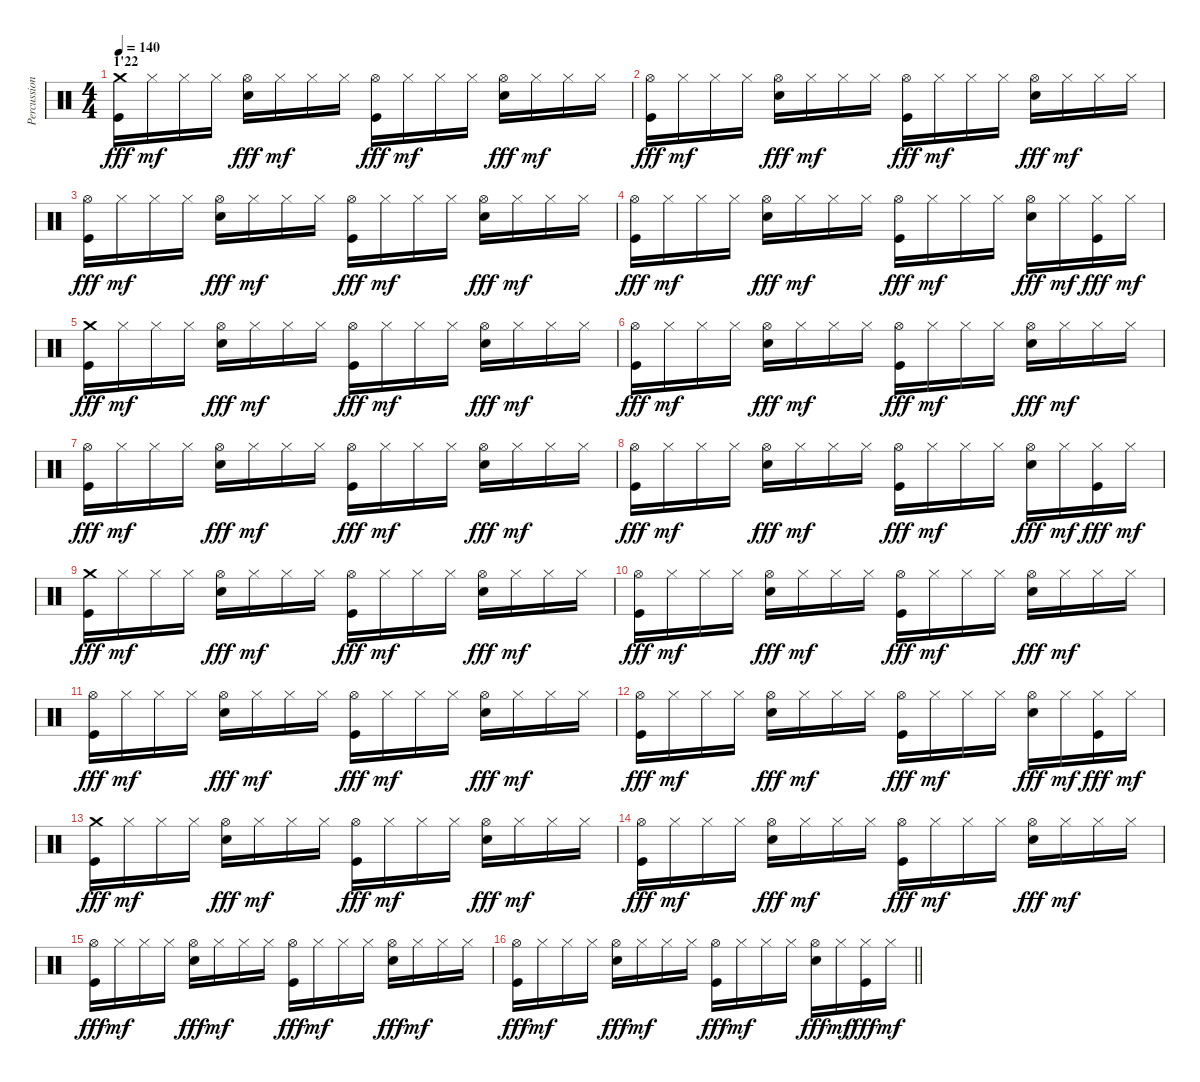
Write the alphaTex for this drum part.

\track ("Percussions" "Percussion") {instrument percussion}
\staff {score}
\articulation defaults
\ts (4 4)
\section ("" "1'22")
\tempo 140
\clef neutral
\ks c
("Crash medium (hit)" "Kick (hit)").16{dy fff} "Hi-Hat (closed)".16{dy mf} "Hi-Hat (closed)".16 "Hi-Hat (closed)".16 ("Hi-Hat (open)" "Electric Snare (hit)").16{dy fff} "Hi-Hat (closed)".16{dy mf} "Hi-Hat (closed)".16 "Hi-Hat (closed)".16 ("Hi-Hat (open)" "Kick (hit)").16{dy fff} "Hi-Hat (closed)".16{dy mf} "Hi-Hat (closed)".16 "Hi-Hat (closed)".16 ("Hi-Hat (open)" "Electric Snare (hit)").16{dy fff} "Hi-Hat (closed)".16{dy mf} "Hi-Hat (closed)".16 "Hi-Hat (closed)".16 |
("Hi-Hat (open)" "Kick (hit)").16{dy fff} "Hi-Hat (closed)".16{dy mf} "Hi-Hat (closed)".16 "Hi-Hat (closed)".16 ("Hi-Hat (open)" "Electric Snare (hit)").16{dy fff} "Hi-Hat (closed)".16{dy mf} "Hi-Hat (closed)".16 "Hi-Hat (closed)".16 ("Hi-Hat (open)" "Kick (hit)").16{dy fff} "Hi-Hat (closed)".16{dy mf} "Hi-Hat (closed)".16 "Hi-Hat (closed)".16 ("Hi-Hat (open)" "Electric Snare (hit)").16{dy fff} "Hi-Hat (closed)".16{dy mf} "Hi-Hat (closed)".16 "Hi-Hat (closed)".16 |
("Hi-Hat (open)" "Kick (hit)").16{dy fff} "Hi-Hat (closed)".16{dy mf} "Hi-Hat (closed)".16 "Hi-Hat (closed)".16 ("Hi-Hat (open)" "Electric Snare (hit)").16{dy fff} "Hi-Hat (closed)".16{dy mf} "Hi-Hat (closed)".16 "Hi-Hat (closed)".16 ("Hi-Hat (open)" "Kick (hit)").16{dy fff} "Hi-Hat (closed)".16{dy mf} "Hi-Hat (closed)".16 "Hi-Hat (closed)".16 ("Hi-Hat (open)" "Electric Snare (hit)").16{dy fff} "Hi-Hat (closed)".16{dy mf} "Hi-Hat (closed)".16 "Hi-Hat (closed)".16 |
("Hi-Hat (open)" "Kick (hit)").16{dy fff} "Hi-Hat (closed)".16{dy mf} "Hi-Hat (closed)".16 "Hi-Hat (closed)".16 ("Hi-Hat (open)" "Electric Snare (hit)").16{dy fff} "Hi-Hat (closed)".16{dy mf} "Hi-Hat (closed)".16 "Hi-Hat (closed)".16 ("Hi-Hat (open)" "Kick (hit)").16{dy fff} "Hi-Hat (closed)".16{dy mf} "Hi-Hat (closed)".16 "Hi-Hat (closed)".16 ("Hi-Hat (open)" "Electric Snare (hit)").16{dy fff} "Hi-Hat (closed)".16{dy mf} ("Hi-Hat (closed)" "Kick (hit)").16{dy fff} "Hi-Hat (closed)".16{dy mf} |
("Crash medium (hit)" "Kick (hit)").16{dy fff} "Hi-Hat (closed)".16{dy mf} "Hi-Hat (closed)".16 "Hi-Hat (closed)".16 ("Hi-Hat (open)" "Electric Snare (hit)").16{dy fff} "Hi-Hat (closed)".16{dy mf} "Hi-Hat (closed)".16 "Hi-Hat (closed)".16 ("Hi-Hat (open)" "Kick (hit)").16{dy fff} "Hi-Hat (closed)".16{dy mf} "Hi-Hat (closed)".16 "Hi-Hat (closed)".16 ("Hi-Hat (open)" "Electric Snare (hit)").16{dy fff} "Hi-Hat (closed)".16{dy mf} "Hi-Hat (closed)".16 "Hi-Hat (closed)".16 |
("Hi-Hat (open)" "Kick (hit)").16{dy fff} "Hi-Hat (closed)".16{dy mf} "Hi-Hat (closed)".16 "Hi-Hat (closed)".16 ("Hi-Hat (open)" "Electric Snare (hit)").16{dy fff} "Hi-Hat (closed)".16{dy mf} "Hi-Hat (closed)".16 "Hi-Hat (closed)".16 ("Hi-Hat (open)" "Kick (hit)").16{dy fff} "Hi-Hat (closed)".16{dy mf} "Hi-Hat (closed)".16 "Hi-Hat (closed)".16 ("Hi-Hat (open)" "Electric Snare (hit)").16{dy fff} "Hi-Hat (closed)".16{dy mf} "Hi-Hat (closed)".16 "Hi-Hat (closed)".16 |
("Hi-Hat (open)" "Kick (hit)").16{dy fff} "Hi-Hat (closed)".16{dy mf} "Hi-Hat (closed)".16 "Hi-Hat (closed)".16 ("Hi-Hat (open)" "Electric Snare (hit)").16{dy fff} "Hi-Hat (closed)".16{dy mf} "Hi-Hat (closed)".16 "Hi-Hat (closed)".16 ("Hi-Hat (open)" "Kick (hit)").16{dy fff} "Hi-Hat (closed)".16{dy mf} "Hi-Hat (closed)".16 "Hi-Hat (closed)".16 ("Hi-Hat (open)" "Electric Snare (hit)").16{dy fff} "Hi-Hat (closed)".16{dy mf} "Hi-Hat (closed)".16 "Hi-Hat (closed)".16 |
("Hi-Hat (open)" "Kick (hit)").16{dy fff} "Hi-Hat (closed)".16{dy mf} "Hi-Hat (closed)".16 "Hi-Hat (closed)".16 ("Hi-Hat (open)" "Electric Snare (hit)").16{dy fff} "Hi-Hat (closed)".16{dy mf} "Hi-Hat (closed)".16 "Hi-Hat (closed)".16 ("Hi-Hat (open)" "Kick (hit)").16{dy fff} "Hi-Hat (closed)".16{dy mf} "Hi-Hat (closed)".16 "Hi-Hat (closed)".16 ("Hi-Hat (open)" "Electric Snare (hit)").16{dy fff} "Hi-Hat (closed)".16{dy mf} ("Hi-Hat (closed)" "Kick (hit)").16{dy fff} "Hi-Hat (closed)".16{dy mf} |
("Crash medium (hit)" "Kick (hit)").16{dy fff} "Hi-Hat (closed)".16{dy mf} "Hi-Hat (closed)".16 "Hi-Hat (closed)".16 ("Hi-Hat (open)" "Electric Snare (hit)").16{dy fff} "Hi-Hat (closed)".16{dy mf} "Hi-Hat (closed)".16 "Hi-Hat (closed)".16 ("Hi-Hat (open)" "Kick (hit)").16{dy fff} "Hi-Hat (closed)".16{dy mf} "Hi-Hat (closed)".16 "Hi-Hat (closed)".16 ("Hi-Hat (open)" "Electric Snare (hit)").16{dy fff} "Hi-Hat (closed)".16{dy mf} "Hi-Hat (closed)".16 "Hi-Hat (closed)".16 |
("Hi-Hat (open)" "Kick (hit)").16{dy fff} "Hi-Hat (closed)".16{dy mf} "Hi-Hat (closed)".16 "Hi-Hat (closed)".16 ("Hi-Hat (open)" "Electric Snare (hit)").16{dy fff} "Hi-Hat (closed)".16{dy mf} "Hi-Hat (closed)".16 "Hi-Hat (closed)".16 ("Hi-Hat (open)" "Kick (hit)").16{dy fff} "Hi-Hat (closed)".16{dy mf} "Hi-Hat (closed)".16 "Hi-Hat (closed)".16 ("Hi-Hat (open)" "Electric Snare (hit)").16{dy fff} "Hi-Hat (closed)".16{dy mf} "Hi-Hat (closed)".16 "Hi-Hat (closed)".16 |
("Hi-Hat (open)" "Kick (hit)").16{dy fff} "Hi-Hat (closed)".16{dy mf} "Hi-Hat (closed)".16 "Hi-Hat (closed)".16 ("Hi-Hat (open)" "Electric Snare (hit)").16{dy fff} "Hi-Hat (closed)".16{dy mf} "Hi-Hat (closed)".16 "Hi-Hat (closed)".16 ("Hi-Hat (open)" "Kick (hit)").16{dy fff} "Hi-Hat (closed)".16{dy mf} "Hi-Hat (closed)".16 "Hi-Hat (closed)".16 ("Hi-Hat (open)" "Electric Snare (hit)").16{dy fff} "Hi-Hat (closed)".16{dy mf} "Hi-Hat (closed)".16 "Hi-Hat (closed)".16 |
("Hi-Hat (open)" "Kick (hit)").16{dy fff} "Hi-Hat (closed)".16{dy mf} "Hi-Hat (closed)".16 "Hi-Hat (closed)".16 ("Hi-Hat (open)" "Electric Snare (hit)").16{dy fff} "Hi-Hat (closed)".16{dy mf} "Hi-Hat (closed)".16 "Hi-Hat (closed)".16 ("Hi-Hat (open)" "Kick (hit)").16{dy fff} "Hi-Hat (closed)".16{dy mf} "Hi-Hat (closed)".16 "Hi-Hat (closed)".16 ("Hi-Hat (open)" "Electric Snare (hit)").16{dy fff} "Hi-Hat (closed)".16{dy mf} ("Hi-Hat (closed)" "Kick (hit)").16{dy fff} "Hi-Hat (closed)".16{dy mf} |
("Crash medium (hit)" "Kick (hit)").16{dy fff} "Hi-Hat (closed)".16{dy mf} "Hi-Hat (closed)".16 "Hi-Hat (closed)".16 ("Hi-Hat (open)" "Electric Snare (hit)").16{dy fff} "Hi-Hat (closed)".16{dy mf} "Hi-Hat (closed)".16 "Hi-Hat (closed)".16 ("Hi-Hat (open)" "Kick (hit)").16{dy fff} "Hi-Hat (closed)".16{dy mf} "Hi-Hat (closed)".16 "Hi-Hat (closed)".16 ("Hi-Hat (open)" "Electric Snare (hit)").16{dy fff} "Hi-Hat (closed)".16{dy mf} "Hi-Hat (closed)".16 "Hi-Hat (closed)".16 |
("Hi-Hat (open)" "Kick (hit)").16{dy fff} "Hi-Hat (closed)".16{dy mf} "Hi-Hat (closed)".16 "Hi-Hat (closed)".16 ("Hi-Hat (open)" "Electric Snare (hit)").16{dy fff} "Hi-Hat (closed)".16{dy mf} "Hi-Hat (closed)".16 "Hi-Hat (closed)".16 ("Hi-Hat (open)" "Kick (hit)").16{dy fff} "Hi-Hat (closed)".16{dy mf} "Hi-Hat (closed)".16 "Hi-Hat (closed)".16 ("Hi-Hat (open)" "Electric Snare (hit)").16{dy fff} "Hi-Hat (closed)".16{dy mf} "Hi-Hat (closed)".16 "Hi-Hat (closed)".16 |
("Hi-Hat (open)" "Kick (hit)").16{dy fff} "Hi-Hat (closed)".16{dy mf} "Hi-Hat (closed)".16 "Hi-Hat (closed)".16 ("Hi-Hat (open)" "Electric Snare (hit)").16{dy fff} "Hi-Hat (closed)".16{dy mf} "Hi-Hat (closed)".16 "Hi-Hat (closed)".16 ("Hi-Hat (open)" "Kick (hit)").16{dy fff} "Hi-Hat (closed)".16{dy mf} "Hi-Hat (closed)".16 "Hi-Hat (closed)".16 ("Hi-Hat (open)" "Electric Snare (hit)").16{dy fff} "Hi-Hat (closed)".16{dy mf} "Hi-Hat (closed)".16 "Hi-Hat (closed)".16 |
\barLineRight lightlight
("Hi-Hat (open)" "Kick (hit)").16{dy fff} "Hi-Hat (closed)".16{dy mf} "Hi-Hat (closed)".16 "Hi-Hat (closed)".16 ("Hi-Hat (open)" "Electric Snare (hit)").16{dy fff} "Hi-Hat (closed)".16{dy mf} "Hi-Hat (closed)".16 "Hi-Hat (closed)".16 ("Hi-Hat (open)" "Kick (hit)").16{dy fff} "Hi-Hat (closed)".16{dy mf} "Hi-Hat (closed)".16 "Hi-Hat (closed)".16 ("Hi-Hat (open)" "Electric Snare (hit)").16{dy fff} "Hi-Hat (closed)".16{dy mf} ("Hi-Hat (closed)" "Kick (hit)").16{dy fff} "Hi-Hat (closed)".16{dy mf}
